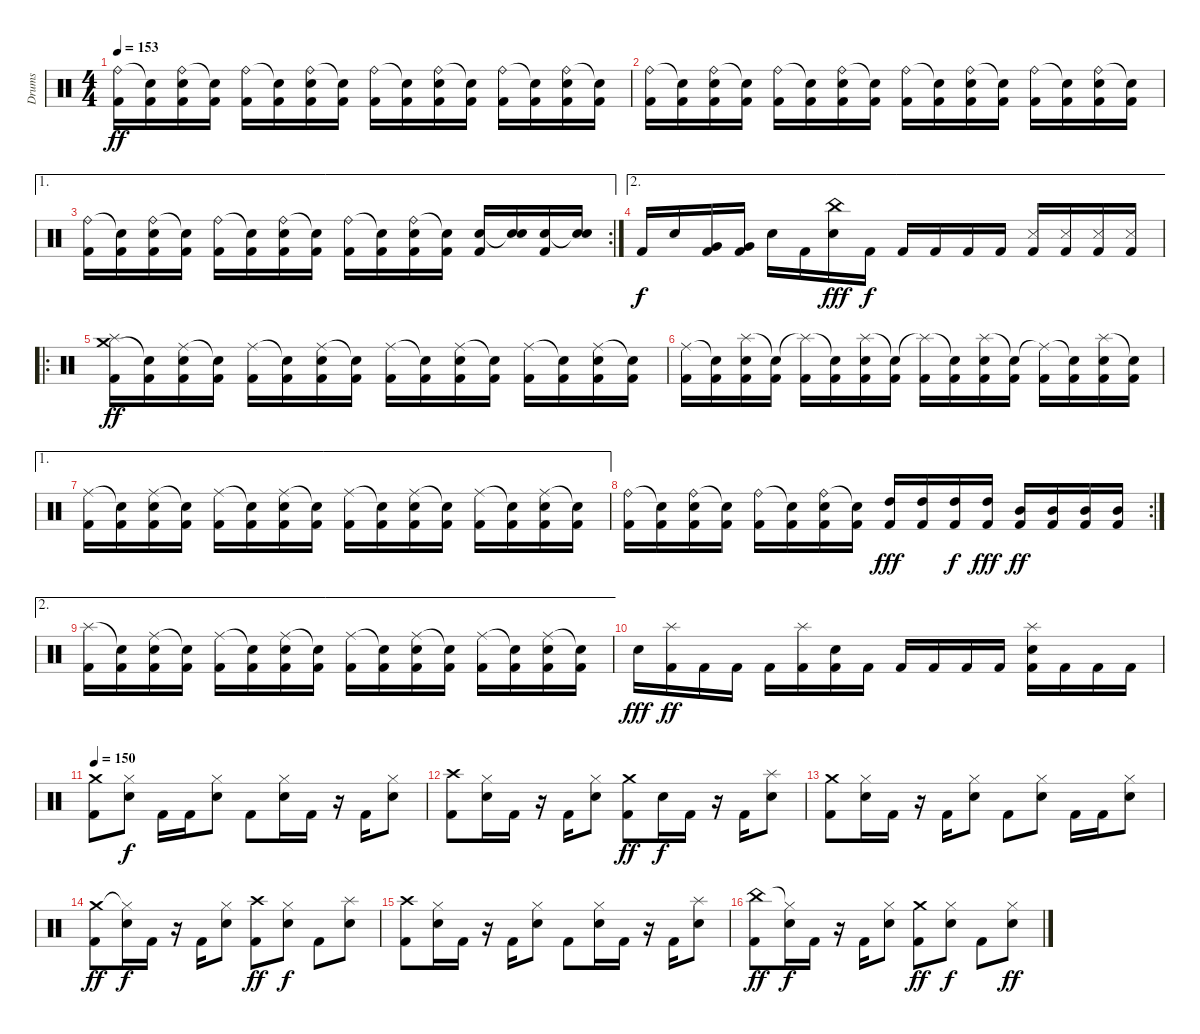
\track ("Drums" "Drums") {instrument percussion}
\staff {score}
\articulation defaults
\ts (4 4)
\tempo 153
\clef neutral
\ks c
("Ride (bell)" "Kick (hit) 2").16{dy ff} ("Snare (hit)"{t} "Kick (hit) 2").16 ("Ride (bell)" "Electric Snare (hit)" "Kick (hit) 2").16 ("Snare (hit)"{t} "Kick (hit) 2").16 ("Ride (bell)" "Kick (hit) 2").16 ("Snare (hit)"{t} "Kick (hit) 2").16 ("Ride (bell)" "Electric Snare (hit)" "Kick (hit) 2").16 ("Snare (hit)"{t} "Kick (hit) 2").16 ("Ride (bell)" "Kick (hit) 2").16 ("Snare (hit)"{t} "Kick (hit) 2").16 ("Ride (bell)" "Electric Snare (hit)" "Kick (hit) 2").16 ("Snare (hit)"{t} "Kick (hit) 2").16 ("Ride (bell)" "Kick (hit) 2").16 ("Snare (hit)"{t} "Kick (hit) 2").16 ("Ride (bell)" "Electric Snare (hit)" "Kick (hit) 2").16 ("Snare (hit)"{t} "Kick (hit) 2").16 |
("Ride (bell)" "Kick (hit) 2").16 ("Snare (hit)"{t} "Kick (hit) 2").16 ("Ride (bell)" "Electric Snare (hit)" "Kick (hit) 2").16 ("Snare (hit)"{t} "Kick (hit) 2").16 ("Ride (bell)" "Kick (hit) 2").16 ("Snare (hit)"{t} "Kick (hit) 2").16 ("Ride (bell)" "Electric Snare (hit)" "Kick (hit) 2").16 ("Snare (hit)"{t} "Kick (hit) 2").16 ("Ride (bell)" "Kick (hit) 2").16 ("Snare (hit)"{t} "Kick (hit) 2").16 ("Ride (bell)" "Electric Snare (hit)" "Kick (hit) 2").16 ("Snare (hit)"{t} "Kick (hit) 2").16 ("Ride (bell)" "Kick (hit) 2").16 ("Snare (hit)"{t} "Kick (hit) 2").16 ("Ride (bell)" "Electric Snare (hit)" "Kick (hit) 2").16 ("Snare (hit)"{t} "Kick (hit) 2").16 |
\ae 1
\rc 2
("Ride (bell)" "Kick (hit) 2").16 ("Snare (hit)"{t} "Kick (hit) 2").16 ("Ride (bell)" "Electric Snare (hit)" "Kick (hit) 2").16 ("Snare (hit)"{t} "Kick (hit) 2").16 ("Ride (bell)" "Kick (hit) 2").16 ("Snare (hit)"{t} "Kick (hit) 2").16 ("Ride (bell)" "Electric Snare (hit)" "Kick (hit) 2").16 ("Snare (hit)"{t} "Kick (hit) 2").16 ("Ride (bell)" "Kick (hit) 2").16 ("Snare (hit)"{t} "Kick (hit) 2").16 ("Ride (bell)" "Electric Snare (hit)" "Kick (hit) 2").16 ("Snare (hit)"{t} "Kick (hit) 2").16 ("Electric Snare (hit)" "Kick (hit) 2").16 ("Snare (hit)"{t} "Electric Snare (hit)").16 ("Electric Snare (hit)" "Kick (hit) 2").16 ("Snare (hit)"{t} "Electric Snare (hit)").16 |
\ae 2 "Kick (hit) 2".16{dy f} "Electric Snare (hit)".16
("Very Low Tom (hit)" "Kick (hit) 2").16 ("Very Low Tom (hit)" "Kick (hit) 2").16 "Electric Snare (hit)".16 "Kick (hit) 2".16 ("China (hit)" "Electric Snare (hit)").16{dy fff} "Kick (hit) 2".16{dy f} "Kick (hit) 2".16 "Kick (hit) 2".16 "Kick (hit) 2".16 "Kick (hit) 2".16 ("Metronome (hit)" "Kick (hit) 2").16 ("Metronome (hit)" "Kick (hit) 2").16 ("Metronome (hit)" "Kick (hit) 2").16 ("Metronome (hit)" "Kick (hit) 2").16 |
\ro
("Crash medium (hit)" "Splash (hit)" "Kick (hit) 2").16{dy ff} ("Snare (hit)"{t} "Kick (hit) 2").16 ("Ride (middle)" "Electric Snare (hit)" "Kick (hit) 2").16 ("Snare (hit)"{t} "Kick (hit) 2").16 ("Ride (middle)" "Kick (hit) 2").16 ("Snare (hit)"{t} "Kick (hit) 2").16 ("Ride (middle)" "Electric Snare (hit)" "Kick (hit) 2").16 ("Snare (hit)"{t} "Kick (hit) 2").16 ("Ride (middle)" "Kick (hit) 2").16 ("Snare (hit)"{t} "Kick (hit) 2").16 ("Ride (middle)" "Electric Snare (hit)" "Kick (hit) 2").16 ("Snare (hit)"{t} "Kick (hit) 2").16 ("Ride (middle)" "Kick (hit) 2").16 ("Snare (hit)"{t} "Kick (hit) 2").16 ("Ride (middle)" "Electric Snare (hit)" "Kick (hit) 2").16 ("Snare (hit)"{t} "Kick (hit) 2").16 |
("Ride (middle)" "Kick (hit) 2").16 ("Snare (hit)"{t} "Kick (hit) 2").16 ("Splash (hit)" "Electric Snare (hit)" "Kick (hit) 2").16 ("Snare (hit)"{t} "Kick (hit) 2").16 ("Splash (hit)"{t} "Kick (hit) 2").16 ("Snare (hit)"{t} "Kick (hit) 2").16 ("Splash (hit)" "Electric Snare (hit)" "Kick (hit) 2").16 ("Snare (hit)"{t} "Kick (hit) 2").16 ("Splash (hit)"{t} "Kick (hit) 2").16 ("Snare (hit)"{t} "Kick (hit) 2").16 ("Splash (hit)" "Electric Snare (hit)" "Kick (hit) 2").16 ("Snare (hit)"{t} "Kick (hit) 2").16 ("Ride (middle)"{t} "Kick (hit) 2").16 ("Snare (hit)"{t} "Kick (hit) 2").16 ("Splash (hit)" "Electric Snare (hit)" "Kick (hit) 2").16 ("Snare (hit)"{t} "Kick (hit) 2").16 |
\ae 1
("Ride (middle)" "Kick (hit) 2").16 ("Snare (hit)"{t} "Kick (hit) 2").16 ("Ride (middle)" "Electric Snare (hit)" "Kick (hit) 2").16 ("Snare (hit)"{t} "Kick (hit) 2").16 ("Ride (middle)" "Kick (hit) 2").16 ("Snare (hit)"{t} "Kick (hit) 2").16 ("Ride (middle)" "Electric Snare (hit)" "Kick (hit) 2").16 ("Snare (hit)"{t} "Kick (hit) 2").16 ("Ride (middle)" "Kick (hit) 2").16 ("Snare (hit)"{t} "Kick (hit) 2").16 ("Ride (middle)" "Electric Snare (hit)" "Kick (hit) 2").16 ("Snare (hit)"{t} "Kick (hit) 2").16 ("Ride (middle)" "Kick (hit) 2").16 ("Snare (hit)"{t} "Kick (hit) 2").16 ("Ride (middle)" "Electric Snare (hit)" "Kick (hit) 2").16 ("Snare (hit)"{t} "Kick (hit) 2").16 |
\rc 2
("Ride (bell)" "Kick (hit) 2").16 ("Snare (hit)"{t} "Kick (hit) 2").16 ("Ride (bell)" "Electric Snare (hit)" "Kick (hit) 2").16 ("Snare (hit)"{t} "Kick (hit) 2").16 ("Ride (bell)" "Kick (hit) 2").16 ("Snare (hit)"{t} "Kick (hit) 2").16 ("Ride (bell)" "Electric Snare (hit)" "Kick (hit) 2").16 ("Snare (hit)"{t} "Kick (hit) 2").16 ("High Tom (hit)" "Kick (hit) 2").16{dy fff} ("High Tom (hit)" "Kick (hit) 2").16 ("High Tom (hit)" "Kick (hit) 2").16{dy f} ("High Tom (hit)" "Kick (hit) 2").16{dy fff} ("Mid Tom (hit)" "Kick (hit) 2").16{dy ff} ("Mid Tom (hit)" "Kick (hit) 2").16 ("Mid Tom (hit)" "Kick (hit) 2").16 ("Mid Tom (hit)" "Kick (hit) 2").16 |
\ae 2
("Splash (hit)" "Kick (hit) 2").16 ("Snare (hit)"{t} "Kick (hit) 2").16 ("Ride (middle)" "Electric Snare (hit)" "Kick (hit) 2").16 ("Snare (hit)"{t} "Kick (hit) 2").16 ("Ride (middle)" "Kick (hit) 2").16 ("Snare (hit)"{t} "Kick (hit) 2").16 ("Ride (middle)" "Electric Snare (hit)" "Kick (hit) 2").16 ("Snare (hit)"{t} "Kick (hit) 2").16 ("Ride (middle)" "Kick (hit) 2").16 ("Snare (hit)"{t} "Kick (hit) 2").16 ("Ride (middle)" "Electric Snare (hit)" "Kick (hit) 2").16 ("Snare (hit)"{t} "Kick (hit) 2").16 ("Ride (middle)" "Kick (hit) 2").16 ("Snare (hit)"{t} "Kick (hit) 2").16 ("Ride (middle)" "Electric Snare (hit)" "Kick (hit) 2").16 ("Snare (hit)"{t} "Kick (hit) 2").16 |
"Snare (hit) 2".16{dy fff} ("Splash (hit)" "Kick (hit) 2").16{dy ff} "Kick (hit) 2".16 "Kick (hit) 2".16 "Kick (hit) 2".16 ("Splash (hit)" "Kick (hit) 2").16 ("Snare (hit) 2" "Kick (hit) 2").16 "Kick (hit) 2".16 "Kick (hit) 2".16 "Kick (hit) 2".16 "Kick (hit) 2".16 "Kick (hit) 2".16 ("Snare (hit) 2" "Splash (hit)" "Kick (hit) 2").16 "Kick (hit) 2".16 "Kick (hit) 2".16 "Kick (hit) 2".16 |
\tempo 150
("Crash medium (hit)" "Kick (hit) 2").8 ("Hi-Hat (closed)" "Electric Snare (hit)").8{dy f} "Kick (hit) 2".16 "Kick (hit) 2".16 ("Hi-Hat (closed)" "Electric Snare (hit)").8 "Kick (hit) 2".8 ("Hi-Hat (closed)" "Electric Snare (hit)").16 "Kick (hit) 2".16 r.16 "Kick (hit) 2".16 ("Hi-Hat (closed)" "Electric Snare (hit)").8 |
("Crash high (hit)" "Kick (hit) 2").8 ("Hi-Hat (closed)" "Electric Snare (hit)").16 "Kick (hit) 2".16 r.16 "Kick (hit) 2".16 ("Hi-Hat (closed)" "Electric Snare (hit)").8 ("Crash medium (hit)" "Kick (hit) 2").8{dy ff} "Electric Snare (hit)".16{dy f} "Kick (hit) 2".16 r.16 "Kick (hit) 2".16 ("Splash (hit)" "Electric Snare (hit)").8 |
("Crash medium (hit)" "Kick (hit) 2").8 ("Hi-Hat (closed)" "Electric Snare (hit)").16 "Kick (hit) 2".16 r.16 "Kick (hit) 2".16 ("Hi-Hat (closed)" "Electric Snare (hit)").8 "Kick (hit) 2".8 ("Hi-Hat (closed)" "Electric Snare (hit)").8 "Kick (hit) 2".16 "Kick (hit) 2".16 ("Hi-Hat (closed)" "Electric Snare (hit)").8 |
("Crash medium (hit)" "Kick (hit) 2").8{dy ff} ("Hi-Hat (closed)"{t} "Electric Snare (hit)").16{dy f} "Kick (hit) 2".16 r.16 "Kick (hit) 2".16 ("Hi-Hat (closed)" "Electric Snare (hit)").8 ("Crash high (hit)" "Kick (hit) 2").8{dy ff} ("Hi-Hat (closed)" "Electric Snare (hit)").8{dy f} "Kick (hit) 2".8 ("Splash (hit)" "Electric Snare (hit)").8 |
("Crash high (hit)" "Kick (hit) 2").8 ("Hi-Hat (closed)" "Electric Snare (hit)").16 "Kick (hit) 2".16 r.16 "Kick (hit) 2".16 ("Hi-Hat (closed)" "Electric Snare (hit)").8 "Kick (hit) 2".8 ("Hi-Hat (closed)" "Electric Snare (hit)").16 "Kick (hit) 2".16 r.16 "Kick (hit) 2".16 ("Splash (hit)" "Electric Snare (hit)").8 |
("China (hit)" "Kick (hit) 2").8{dy ff} ("Hi-Hat (closed)"{t} "Electric Snare (hit)").16{dy f} "Kick (hit) 2".16 r.16 "Kick (hit) 2".16 ("Hi-Hat (closed)" "Electric Snare (hit)").8 ("Crash medium (hit)" "Kick (hit) 2").8{dy ff} ("Hi-Hat (closed)" "Electric Snare (hit)").8{dy f} "Kick (hit) 2".8 ("Hi-Hat (closed)" "Electric Snare (hit)").8{dy ff}
